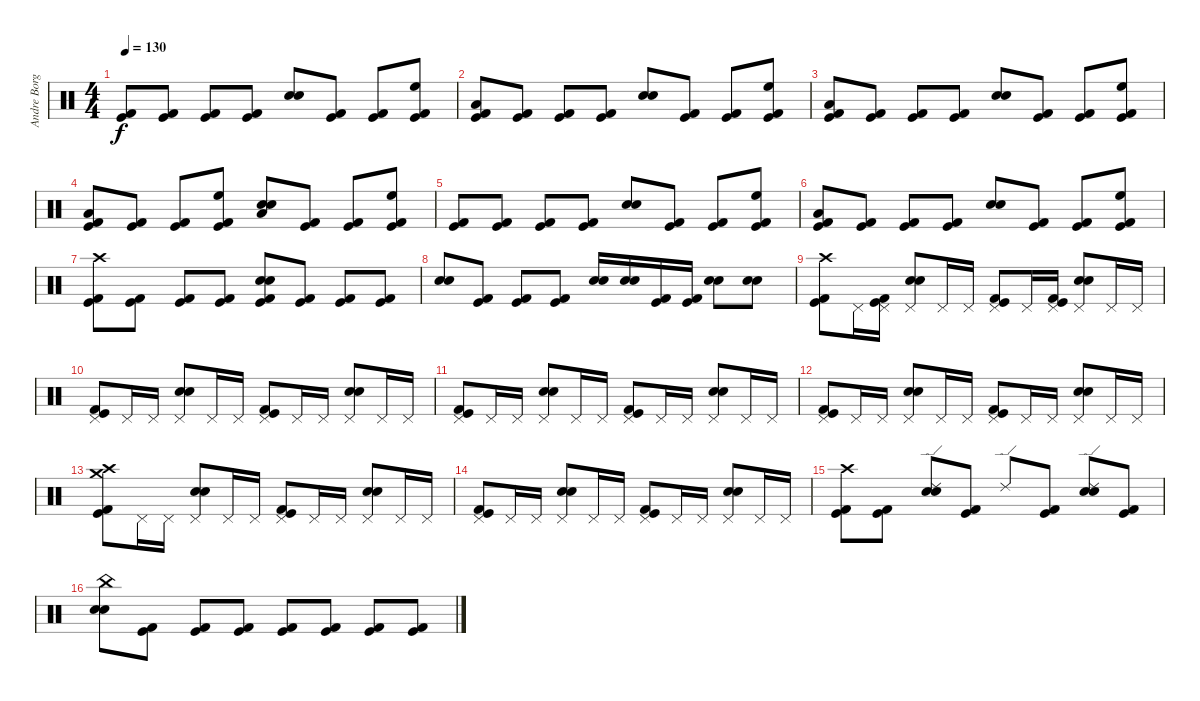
\track ("Andre Borgman" "Andre Borg") {instrument percussion}
\staff {score}
\articulation defaults
\ts (4 4)
\tempo 130
\clef neutral
\ks c
("Kick (hit)" "Kick (hit) 2").8{dy f} ("Kick (hit)" "Kick (hit) 2").8 ("Kick (hit)" "Kick (hit) 2").8 ("Kick (hit)" "Kick (hit) 2").8 ("Electric Snare (hit)" "Snare (hit) 2").8 ("Kick (hit)" "Kick (hit) 2").8 ("Kick (hit)" "Kick (hit) 2").8 ("High Floor Tom (hit)" "Kick (hit)" "Kick (hit) 2").8 |
("Low Tom (hit)" "Kick (hit)" "Kick (hit) 2").8 ("Kick (hit)" "Kick (hit) 2").8 ("Kick (hit)" "Kick (hit) 2").8 ("Kick (hit)" "Kick (hit) 2").8 ("Electric Snare (hit)" "Snare (hit) 2").8 ("Kick (hit)" "Kick (hit) 2").8 ("Kick (hit)" "Kick (hit) 2").8 ("High Floor Tom (hit)" "Kick (hit)" "Kick (hit) 2").8 |
("Low Tom (hit)" "Kick (hit)" "Kick (hit) 2").8 ("Kick (hit)" "Kick (hit) 2").8 ("Kick (hit)" "Kick (hit) 2").8 ("Kick (hit)" "Kick (hit) 2").8 ("Electric Snare (hit)" "Snare (hit) 2").8 ("Kick (hit)" "Kick (hit) 2").8 ("Kick (hit)" "Kick (hit) 2").8 ("High Floor Tom (hit)" "Kick (hit)" "Kick (hit) 2").8 |
("Low Tom (hit)" "Kick (hit)" "Kick (hit) 2").8 ("Kick (hit)" "Kick (hit) 2").8 ("Kick (hit)" "Kick (hit) 2").8 ("High Floor Tom (hit)" "Kick (hit)" "Kick (hit) 2").8 ("Low Tom (hit)" "Electric Snare (hit)" "Snare (hit) 2").8 ("Kick (hit)" "Kick (hit) 2").8 ("Kick (hit)" "Kick (hit) 2").8 ("High Floor Tom (hit)" "Kick (hit)" "Kick (hit) 2").8 |
("Kick (hit)" "Kick (hit) 2").8 ("Kick (hit)" "Kick (hit) 2").8 ("Kick (hit)" "Kick (hit) 2").8 ("Kick (hit)" "Kick (hit) 2").8 ("Electric Snare (hit)" "Snare (hit) 2").8 ("Kick (hit)" "Kick (hit) 2").8 ("Kick (hit)" "Kick (hit) 2").8 ("High Floor Tom (hit)" "Kick (hit)" "Kick (hit) 2").8 |
("Low Tom (hit)" "Kick (hit)" "Kick (hit) 2").8 ("Kick (hit)" "Kick (hit) 2").8 ("Kick (hit)" "Kick (hit) 2").8 ("Kick (hit)" "Kick (hit) 2").8 ("Electric Snare (hit)" "Snare (hit) 2").8 ("Kick (hit)" "Kick (hit) 2").8 ("Kick (hit)" "Kick (hit) 2").8 ("High Floor Tom (hit)" "Kick (hit)" "Kick (hit) 2").8 |
("Crash high (hit)" "Kick (hit)" "Kick (hit) 2").8 ("Kick (hit)" "Kick (hit) 2").8 ("Kick (hit)" "Kick (hit) 2").8 ("Kick (hit)" "Kick (hit) 2").8 ("Kick (hit)" "Kick (hit) 2" "Electric Snare (hit)" "Snare (hit) 2").8 ("Kick (hit)" "Kick (hit) 2").8 ("Kick (hit)" "Kick (hit) 2").8 ("Kick (hit)" "Kick (hit) 2").8 |
("Electric Snare (hit)" "Snare (hit) 2").8 ("Kick (hit)" "Kick (hit) 2").8 ("Kick (hit)" "Kick (hit) 2").8 ("Kick (hit)" "Kick (hit) 2").8 ("Electric Snare (hit)" "Snare (hit) 2").16 ("Electric Snare (hit)" "Snare (hit) 2").16 ("Kick (hit)" "Kick (hit) 2").16 ("Kick (hit)" "Kick (hit) 2").16 ("Electric Snare (hit)" "Snare (hit) 2").8 ("Electric Snare (hit)" "Snare (hit) 2").8 |
("Crash high (hit)" "Kick (hit)" "Kick (hit) 2").8 "Pedal Hi-Hat (hit)".16 ("Pedal Hi-Hat (hit)" "Kick (hit)" "Kick (hit) 2").16 ("Pedal Hi-Hat (hit)" "Electric Snare (hit)" "Snare (hit) 2").8 "Pedal Hi-Hat (hit)".16 "Pedal Hi-Hat (hit)".16 ("Pedal Hi-Hat (hit)" "Kick (hit)" "Kick (hit) 2").8 "Pedal Hi-Hat (hit)".16 ("Pedal Hi-Hat (hit)" "Kick (hit)" "Kick (hit) 2").16 ("Pedal Hi-Hat (hit)" "Electric Snare (hit)" "Snare (hit) 2").8 "Pedal Hi-Hat (hit)".16 "Pedal Hi-Hat (hit)".16 |
("Pedal Hi-Hat (hit)" "Kick (hit)" "Kick (hit) 2").8 "Pedal Hi-Hat (hit)".16 "Pedal Hi-Hat (hit)".16 ("Pedal Hi-Hat (hit)" "Electric Snare (hit)" "Snare (hit) 2").8 "Pedal Hi-Hat (hit)".16 "Pedal Hi-Hat (hit)".16 ("Pedal Hi-Hat (hit)" "Kick (hit)" "Kick (hit) 2").8 "Pedal Hi-Hat (hit)".16 "Pedal Hi-Hat (hit)".16 ("Pedal Hi-Hat (hit)" "Electric Snare (hit)" "Snare (hit) 2").8 "Pedal Hi-Hat (hit)".16 "Pedal Hi-Hat (hit)".16 |
("Pedal Hi-Hat (hit)" "Kick (hit)" "Kick (hit) 2").8 "Pedal Hi-Hat (hit)".16 "Pedal Hi-Hat (hit)".16 ("Pedal Hi-Hat (hit)" "Electric Snare (hit)" "Snare (hit) 2").8 "Pedal Hi-Hat (hit)".16 "Pedal Hi-Hat (hit)".16 ("Pedal Hi-Hat (hit)" "Kick (hit)" "Kick (hit) 2").8 "Pedal Hi-Hat (hit)".16 "Pedal Hi-Hat (hit)".16 ("Pedal Hi-Hat (hit)" "Electric Snare (hit)" "Snare (hit) 2").8 "Pedal Hi-Hat (hit)".16 "Pedal Hi-Hat (hit)".16 |
("Pedal Hi-Hat (hit)" "Kick (hit)" "Kick (hit) 2").8 "Pedal Hi-Hat (hit)".16 "Pedal Hi-Hat (hit)".16 ("Pedal Hi-Hat (hit)" "Electric Snare (hit)" "Snare (hit) 2").8 "Pedal Hi-Hat (hit)".16 "Pedal Hi-Hat (hit)".16 ("Pedal Hi-Hat (hit)" "Kick (hit)" "Kick (hit) 2").8 "Pedal Hi-Hat (hit)".16 "Pedal Hi-Hat (hit)".16 ("Pedal Hi-Hat (hit)" "Electric Snare (hit)" "Snare (hit) 2").8 "Pedal Hi-Hat (hit)".16 "Pedal Hi-Hat (hit)".16 |
("Crash medium (hit)" "Crash high (hit)" "Kick (hit)" "Kick (hit) 2").8 "Pedal Hi-Hat (hit)".16 "Pedal Hi-Hat (hit)".16 ("Pedal Hi-Hat (hit)" "Electric Snare (hit)" "Snare (hit) 2").8 "Pedal Hi-Hat (hit)".16 "Pedal Hi-Hat (hit)".16 ("Pedal Hi-Hat (hit)" "Kick (hit)" "Kick (hit) 2").8 "Pedal Hi-Hat (hit)".16 "Pedal Hi-Hat (hit)".16 ("Pedal Hi-Hat (hit)" "Electric Snare (hit)" "Snare (hit) 2").8 "Pedal Hi-Hat (hit)".16 "Pedal Hi-Hat (hit)".16 |
("Pedal Hi-Hat (hit)" "Kick (hit)" "Kick (hit) 2").8 "Pedal Hi-Hat (hit)".16 "Pedal Hi-Hat (hit)".16 ("Pedal Hi-Hat (hit)" "Electric Snare (hit)" "Snare (hit) 2").8 "Pedal Hi-Hat (hit)".16 "Pedal Hi-Hat (hit)".16 ("Pedal Hi-Hat (hit)" "Kick (hit)" "Kick (hit) 2").8 "Pedal Hi-Hat (hit)".16 "Pedal Hi-Hat (hit)".16 ("Pedal Hi-Hat (hit)" "Electric Snare (hit)" "Snare (hit) 2").8 "Pedal Hi-Hat (hit)".16 "Pedal Hi-Hat (hit)".16 |
("Crash high (hit)" "Kick (hit)" "Kick (hit) 2").8 ("Kick (hit)" "Kick (hit) 2").8 ("Ride (edge) 2" "Electric Snare (hit)" "Snare (hit) 2").8 ("Kick (hit)" "Kick (hit) 2").8 "Ride (edge) 2".8 ("Kick (hit)" "Kick (hit) 2").8 ("Ride (edge) 2" "Electric Snare (hit)" "Snare (hit) 2").8 ("Kick (hit)" "Kick (hit) 2").8 |
("China (hit)" "Electric Snare (hit)" "Snare (hit) 2").8 ("Kick (hit)" "Kick (hit) 2").8 ("Kick (hit)" "Kick (hit) 2").8 ("Kick (hit)" "Kick (hit) 2").8 ("Kick (hit)" "Kick (hit) 2").8 ("Kick (hit)" "Kick (hit) 2").8 ("Kick (hit)" "Kick (hit) 2").8 ("Kick (hit)" "Kick (hit) 2").8
